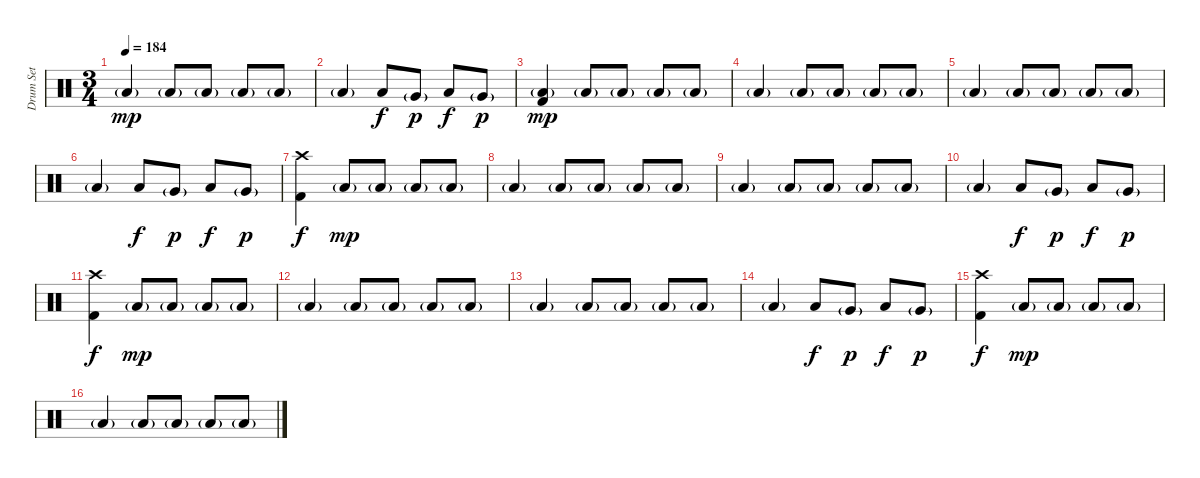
\track ("Drum Set" "Drum Set") {instrument percussion}
\staff {score}
\articulation defaults
\ts (3 4)
\tempo 184
\clef neutral
\ks c "Low Floor Tom (hit)"{g}.4{dy mp} "Low Floor Tom (hit)"{g}.8 "Low Floor Tom (hit)"{g}.8 "Low Floor Tom (hit)"{g}.8 "Low Floor Tom (hit)"{g}.8
|
"Low Floor Tom (hit)"{g}.4 "Low Tom (hit)".8{dy f} "Very Low Tom (hit)"{g}.8{dy p} "Low Floor Tom (hit)".8{dy f} "Very Low Tom (hit)"{g}.8{dy p} |
("Low Floor Tom (hit)"{g} "Kick (hit) 2").4{dy mp} "Low Floor Tom (hit)"{g}.8 "Low Floor Tom (hit)"{g}.8 "Low Floor Tom (hit)"{g}.8 "Low Floor Tom (hit)"{g}.8 |
"Low Floor Tom (hit)"{g}.4 "Low Floor Tom (hit)"{g}.8 "Low Floor Tom (hit)"{g}.8 "Low Floor Tom (hit)"{g}.8 "Low Floor Tom (hit)"{g}.8 |
"Low Floor Tom (hit)"{g}.4 "Low Floor Tom (hit)"{g}.8 "Low Floor Tom (hit)"{g}.8 "Low Floor Tom (hit)"{g}.8 "Low Floor Tom (hit)"{g}.8 |
"Low Floor Tom (hit)"{g}.4 "Low Tom (hit)".8{dy f} "Very Low Tom (hit)"{g}.8{dy p} "Low Floor Tom (hit)".8{dy f} "Very Low Tom (hit)"{g}.8{dy p} |
("Crash high (hit)" "Kick (hit) 2").4{dy f} "Low Floor Tom (hit)"{g}.8{dy mp} "Low Floor Tom (hit)"{g}.8 "Low Floor Tom (hit)"{g}.8 "Low Floor Tom (hit)"{g}.8 |
"Low Floor Tom (hit)"{g}.4 "Low Floor Tom (hit)"{g}.8 "Low Floor Tom (hit)"{g}.8 "Low Floor Tom (hit)"{g}.8 "Low Floor Tom (hit)"{g}.8 |
"Low Floor Tom (hit)"{g}.4 "Low Floor Tom (hit)"{g}.8 "Low Floor Tom (hit)"{g}.8 "Low Floor Tom (hit)"{g}.8 "Low Floor Tom (hit)"{g}.8 |
"Low Floor Tom (hit)"{g}.4 "Low Tom (hit)".8{dy f} "Very Low Tom (hit)"{g}.8{dy p} "Low Floor Tom (hit)".8{dy f} "Very Low Tom (hit)"{g}.8{dy p} |
("Crash high (hit)" "Kick (hit) 2").4{dy f} "Low Floor Tom (hit)"{g}.8{dy mp} "Low Floor Tom (hit)"{g}.8 "Low Floor Tom (hit)"{g}.8 "Low Floor Tom (hit)"{g}.8 |
"Low Floor Tom (hit)"{g}.4 "Low Floor Tom (hit)"{g}.8 "Low Floor Tom (hit)"{g}.8 "Low Floor Tom (hit)"{g}.8 "Low Floor Tom (hit)"{g}.8 |
"Low Floor Tom (hit)"{g}.4 "Low Floor Tom (hit)"{g}.8 "Low Floor Tom (hit)"{g}.8 "Low Floor Tom (hit)"{g}.8 "Low Floor Tom (hit)"{g}.8 |
"Low Floor Tom (hit)"{g}.4 "Low Tom (hit)".8{dy f} "Very Low Tom (hit)"{g}.8{dy p} "Low Floor Tom (hit)".8{dy f} "Very Low Tom (hit)"{g}.8{dy p} |
("Crash high (hit)" "Kick (hit) 2").4{dy f} "Low Floor Tom (hit)"{g}.8{dy mp} "Low Floor Tom (hit)"{g}.8 "Low Floor Tom (hit)"{g}.8 "Low Floor Tom (hit)"{g}.8 |
"Low Floor Tom (hit)"{g}.4 "Low Floor Tom (hit)"{g}.8 "Low Floor Tom (hit)"{g}.8 "Low Floor Tom (hit)"{g}.8 "Low Floor Tom (hit)"{g}.8
